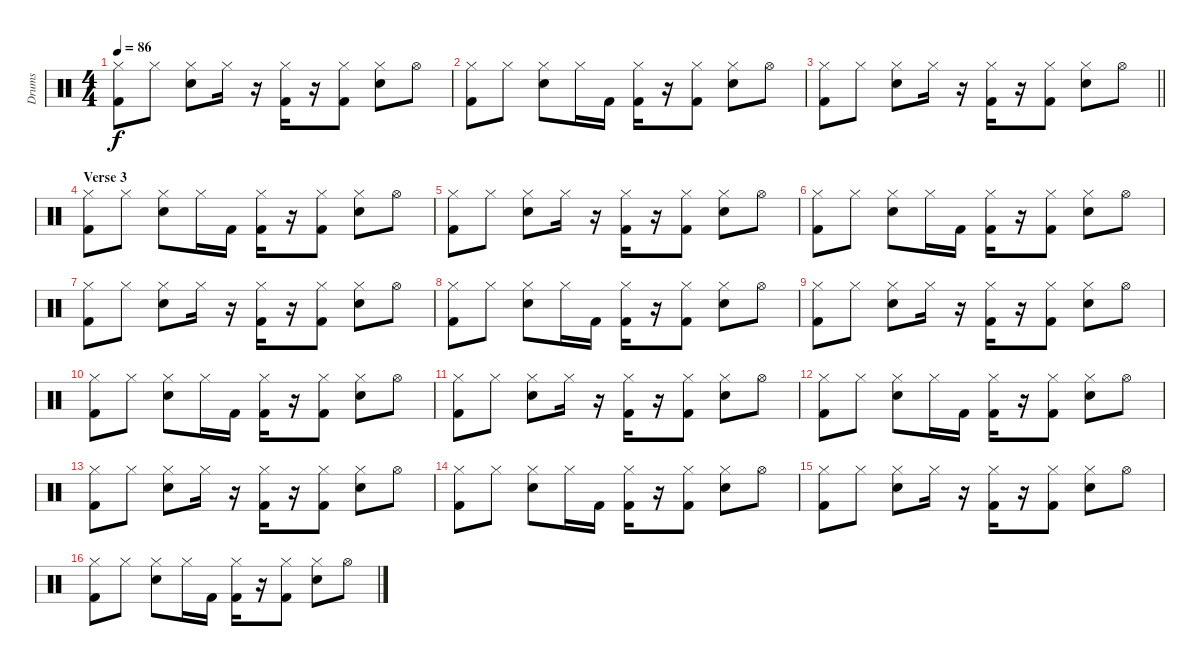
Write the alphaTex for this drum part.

\track ("Drums" "Drums") {instrument percussion}
\staff {score}
\articulation defaults
\ts (4 4)
\tempo 86
\clef neutral
\ks c
("Kick (hit) 2" "Hi-Hat (closed)").8{dy f} "Hi-Hat (closed)".8 ("Snare (hit) 2" "Hi-Hat (closed)").8 "Hi-Hat (closed)".16 r.16 ("Kick (hit) 2" "Hi-Hat (closed)").16 r.16 ("Kick (hit) 2" "Hi-Hat (closed)").8 ("Snare (hit) 2" "Hi-Hat (closed)").8 "Hi-Hat (open)".8 |
("Kick (hit) 2" "Hi-Hat (closed)").8 "Hi-Hat (closed)".8 ("Snare (hit) 2" "Hi-Hat (closed)").8 "Hi-Hat (closed)".16 "Kick (hit) 2".16 ("Kick (hit) 2" "Hi-Hat (closed)").16 r.16 ("Kick (hit) 2" "Hi-Hat (closed)").8 ("Snare (hit) 2" "Hi-Hat (closed)").8 "Hi-Hat (open)".8 |
\barLineRight lightlight
("Kick (hit) 2" "Hi-Hat (closed)").8 "Hi-Hat (closed)".8 ("Snare (hit) 2" "Hi-Hat (closed)").8 "Hi-Hat (closed)".16 r.16 ("Kick (hit) 2" "Hi-Hat (closed)").16 r.16 ("Kick (hit) 2" "Hi-Hat (closed)").8 ("Snare (hit) 2" "Hi-Hat (closed)").8 "Hi-Hat (open)".8 |
\section ("" "Verse 3")
("Kick (hit) 2" "Hi-Hat (closed)").8 "Hi-Hat (closed)".8 ("Snare (hit) 2" "Hi-Hat (closed)").8 "Hi-Hat (closed)".16 "Kick (hit) 2".16 ("Kick (hit) 2" "Hi-Hat (closed)").16 r.16 ("Kick (hit) 2" "Hi-Hat (closed)").8 ("Snare (hit) 2" "Hi-Hat (closed)").8 "Hi-Hat (open)".8 |
("Kick (hit) 2" "Hi-Hat (closed)").8 "Hi-Hat (closed)".8 ("Snare (hit) 2" "Hi-Hat (closed)").8 "Hi-Hat (closed)".16 r.16 ("Kick (hit) 2" "Hi-Hat (closed)").16 r.16 ("Kick (hit) 2" "Hi-Hat (closed)").8 ("Snare (hit) 2" "Hi-Hat (closed)").8 "Hi-Hat (open)".8 |
("Kick (hit) 2" "Hi-Hat (closed)").8 "Hi-Hat (closed)".8 ("Snare (hit) 2" "Hi-Hat (closed)").8 "Hi-Hat (closed)".16 "Kick (hit) 2".16 ("Kick (hit) 2" "Hi-Hat (closed)").16 r.16 ("Kick (hit) 2" "Hi-Hat (closed)").8 ("Snare (hit) 2" "Hi-Hat (closed)").8 "Hi-Hat (open)".8 |
("Kick (hit) 2" "Hi-Hat (closed)").8 "Hi-Hat (closed)".8 ("Snare (hit) 2" "Hi-Hat (closed)").8 "Hi-Hat (closed)".16 r.16 ("Kick (hit) 2" "Hi-Hat (closed)").16 r.16 ("Kick (hit) 2" "Hi-Hat (closed)").8 ("Snare (hit) 2" "Hi-Hat (closed)").8 "Hi-Hat (open)".8 |
("Kick (hit) 2" "Hi-Hat (closed)").8 "Hi-Hat (closed)".8 ("Snare (hit) 2" "Hi-Hat (closed)").8 "Hi-Hat (closed)".16 "Kick (hit) 2".16 ("Kick (hit) 2" "Hi-Hat (closed)").16 r.16 ("Kick (hit) 2" "Hi-Hat (closed)").8 ("Snare (hit) 2" "Hi-Hat (closed)").8 "Hi-Hat (open)".8 |
("Kick (hit) 2" "Hi-Hat (closed)").8 "Hi-Hat (closed)".8 ("Snare (hit) 2" "Hi-Hat (closed)").8 "Hi-Hat (closed)".16 r.16 ("Kick (hit) 2" "Hi-Hat (closed)").16 r.16 ("Kick (hit) 2" "Hi-Hat (closed)").8 ("Snare (hit) 2" "Hi-Hat (closed)").8 "Hi-Hat (open)".8 |
("Kick (hit) 2" "Hi-Hat (closed)").8 "Hi-Hat (closed)".8 ("Snare (hit) 2" "Hi-Hat (closed)").8 "Hi-Hat (closed)".16 "Kick (hit) 2".16 ("Kick (hit) 2" "Hi-Hat (closed)").16 r.16 ("Kick (hit) 2" "Hi-Hat (closed)").8 ("Snare (hit) 2" "Hi-Hat (closed)").8 "Hi-Hat (open)".8 |
("Kick (hit) 2" "Hi-Hat (closed)").8 "Hi-Hat (closed)".8 ("Snare (hit) 2" "Hi-Hat (closed)").8 "Hi-Hat (closed)".16 r.16 ("Kick (hit) 2" "Hi-Hat (closed)").16 r.16 ("Kick (hit) 2" "Hi-Hat (closed)").8 ("Snare (hit) 2" "Hi-Hat (closed)").8 "Hi-Hat (open)".8 |
("Kick (hit) 2" "Hi-Hat (closed)").8 "Hi-Hat (closed)".8 ("Snare (hit) 2" "Hi-Hat (closed)").8 "Hi-Hat (closed)".16 "Kick (hit) 2".16 ("Kick (hit) 2" "Hi-Hat (closed)").16 r.16 ("Kick (hit) 2" "Hi-Hat (closed)").8 ("Snare (hit) 2" "Hi-Hat (closed)").8 "Hi-Hat (open)".8 |
("Kick (hit) 2" "Hi-Hat (closed)").8 "Hi-Hat (closed)".8 ("Snare (hit) 2" "Hi-Hat (closed)").8 "Hi-Hat (closed)".16 r.16 ("Kick (hit) 2" "Hi-Hat (closed)").16 r.16 ("Kick (hit) 2" "Hi-Hat (closed)").8 ("Snare (hit) 2" "Hi-Hat (closed)").8 "Hi-Hat (open)".8 |
("Kick (hit) 2" "Hi-Hat (closed)").8 "Hi-Hat (closed)".8 ("Snare (hit) 2" "Hi-Hat (closed)").8 "Hi-Hat (closed)".16 "Kick (hit) 2".16 ("Kick (hit) 2" "Hi-Hat (closed)").16 r.16 ("Kick (hit) 2" "Hi-Hat (closed)").8 ("Snare (hit) 2" "Hi-Hat (closed)").8 "Hi-Hat (open)".8 |
("Kick (hit) 2" "Hi-Hat (closed)").8 "Hi-Hat (closed)".8 ("Snare (hit) 2" "Hi-Hat (closed)").8 "Hi-Hat (closed)".16 r.16 ("Kick (hit) 2" "Hi-Hat (closed)").16 r.16 ("Kick (hit) 2" "Hi-Hat (closed)").8 ("Snare (hit) 2" "Hi-Hat (closed)").8 "Hi-Hat (open)".8 |
("Kick (hit) 2" "Hi-Hat (closed)").8 "Hi-Hat (closed)".8 ("Snare (hit) 2" "Hi-Hat (closed)").8 "Hi-Hat (closed)".16 "Kick (hit) 2".16 ("Kick (hit) 2" "Hi-Hat (closed)").16 r.16 ("Kick (hit) 2" "Hi-Hat (closed)").8 ("Snare (hit) 2" "Hi-Hat (closed)").8 "Hi-Hat (open)".8
